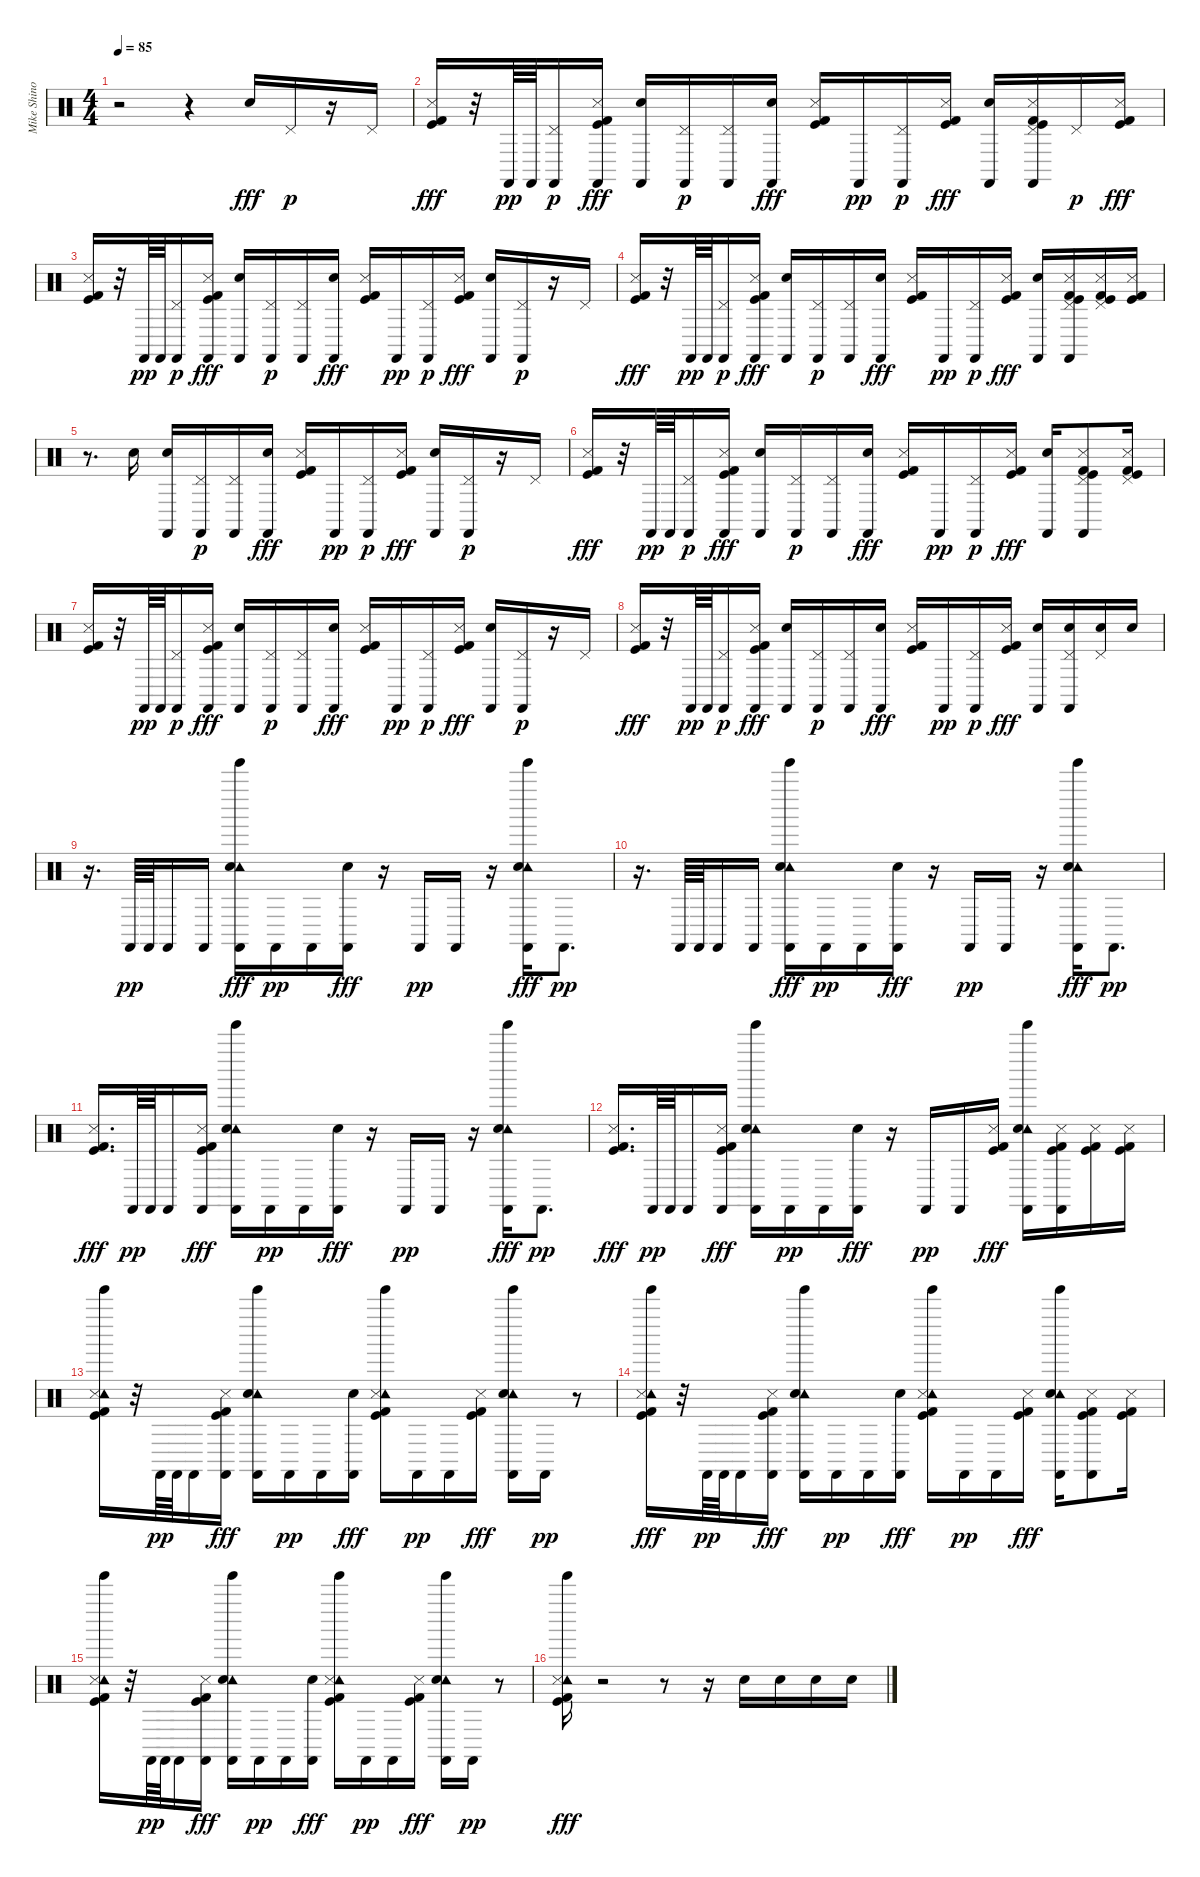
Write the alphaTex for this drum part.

\track ("Mike Shinoda - Percussion" "Mike Shino") {instrument percussion}
\staff {score}
\articulation defaults
\ts (4 4)
\tempo 85
\clef neutral
\ks c
r.2{dy fff} r.4 "Hand Clap (hit)".16 "Pedal Hi-Hat (hit)".16{dy p} r.16 "Pedal Hi-Hat (hit)".16 |
("Snare (side stick) 3" "Kick (hit)" "Kick (hit) 2").16{dy fff} r.32 "Castanets (hit)".64{dy pp} "Castanets (hit)".64 ("Castanets (hit)" "Pedal Hi-Hat (hit)").16{dy p} ("Castanets (hit)" "Snare (side stick) 3" "Kick (hit)" "Kick (hit) 2").16{dy fff} ("Castanets (hit)" "Hand Clap (hit)").16 ("Castanets (hit)" "Pedal Hi-Hat (hit)").16{dy p} ("Castanets (hit)" "Pedal Hi-Hat (hit)").16 ("Castanets (hit)" "Hand Clap (hit)").16{dy fff} ("Snare (side stick) 3" "Kick (hit)" "Kick (hit) 2").16 "Castanets (hit)".16{dy pp} ("Castanets (hit)" "Pedal Hi-Hat (hit)").16{dy p} ("Snare (side stick) 3" "Kick (hit)" "Kick (hit) 2").16{dy fff} ("Castanets (hit)" "Hand Clap (hit)").16 ("Castanets (hit)" "Pedal Hi-Hat (hit)" "Snare (side stick) 3" "Kick (hit)" "Kick (hit) 2").16 "Pedal Hi-Hat (hit)".16{dy p} ("Snare (side stick) 3" "Kick (hit)" "Kick (hit) 2").16{dy fff} |
("Snare (side stick) 3" "Kick (hit)" "Kick (hit) 2").16 r.32 "Castanets (hit)".64{dy pp} "Castanets (hit)".64 ("Castanets (hit)" "Pedal Hi-Hat (hit)").16{dy p} ("Castanets (hit)" "Snare (side stick) 3" "Kick (hit)" "Kick (hit) 2").16{dy fff} ("Castanets (hit)" "Hand Clap (hit)").16 ("Castanets (hit)" "Pedal Hi-Hat (hit)").16{dy p} ("Castanets (hit)" "Pedal Hi-Hat (hit)").16 ("Castanets (hit)" "Hand Clap (hit)").16{dy fff} ("Snare (side stick) 3" "Kick (hit)" "Kick (hit) 2").16 "Castanets (hit)".16{dy pp} ("Castanets (hit)" "Pedal Hi-Hat (hit)").16{dy p} ("Snare (side stick) 3" "Kick (hit)" "Kick (hit) 2").16{dy fff} ("Castanets (hit)" "Hand Clap (hit)").16 ("Castanets (hit)" "Pedal Hi-Hat (hit)").16{dy p} r.16 "Pedal Hi-Hat (hit)".16 |
("Snare (side stick) 3" "Kick (hit)" "Kick (hit) 2").16{dy fff} r.32 "Castanets (hit)".64{dy pp} "Castanets (hit)".64 ("Castanets (hit)" "Pedal Hi-Hat (hit)").16{dy p} ("Castanets (hit)" "Snare (side stick) 3" "Kick (hit)" "Kick (hit) 2").16{dy fff} ("Castanets (hit)" "Hand Clap (hit)").16 ("Castanets (hit)" "Pedal Hi-Hat (hit)").16{dy p} ("Castanets (hit)" "Pedal Hi-Hat (hit)").16 ("Castanets (hit)" "Hand Clap (hit)").16{dy fff} ("Snare (side stick) 3" "Kick (hit)" "Kick (hit) 2").16 "Castanets (hit)".16{dy pp} ("Castanets (hit)" "Pedal Hi-Hat (hit)").16{dy p} ("Snare (side stick) 3" "Kick (hit)" "Kick (hit) 2").16{dy fff} ("Castanets (hit)" "Hand Clap (hit)").16 ("Castanets (hit)" "Pedal Hi-Hat (hit)" "Snare (side stick) 3" "Kick (hit)" "Kick (hit) 2").16 ("Pedal Hi-Hat (hit)" "Snare (side stick) 3" "Kick (hit)" "Kick (hit) 2").16 ("Snare (side stick) 3" "Kick (hit)" "Kick (hit) 2").16 |
r.8{d} "Hand Clap (hit)".16 ("Castanets (hit)" "Hand Clap (hit)").16 ("Castanets (hit)" "Pedal Hi-Hat (hit)").16{dy p} ("Castanets (hit)" "Pedal Hi-Hat (hit)").16 ("Castanets (hit)" "Hand Clap (hit)").16{dy fff} ("Snare (side stick) 3" "Kick (hit)" "Kick (hit) 2").16 "Castanets (hit)".16{dy pp} ("Castanets (hit)" "Pedal Hi-Hat (hit)").16{dy p} ("Snare (side stick) 3" "Kick (hit)" "Kick (hit) 2").16{dy fff} ("Castanets (hit)" "Hand Clap (hit)").16 ("Castanets (hit)" "Pedal Hi-Hat (hit)").16{dy p} r.16 "Pedal Hi-Hat (hit)".16 |
("Snare (side stick) 3" "Kick (hit)" "Kick (hit) 2").16{dy fff} r.32 "Castanets (hit)".64{dy pp} "Castanets (hit)".64 ("Castanets (hit)" "Pedal Hi-Hat (hit)").16{dy p} ("Castanets (hit)" "Snare (side stick) 3" "Kick (hit)" "Kick (hit) 2").16{dy fff} ("Castanets (hit)" "Hand Clap (hit)").16 ("Castanets (hit)" "Pedal Hi-Hat (hit)").16{dy p} ("Castanets (hit)" "Pedal Hi-Hat (hit)").16 ("Castanets (hit)" "Hand Clap (hit)").16{dy fff} ("Snare (side stick) 3" "Kick (hit)" "Kick (hit) 2").16 "Castanets (hit)".16{dy pp} ("Castanets (hit)" "Pedal Hi-Hat (hit)").16{dy p} ("Snare (side stick) 3" "Kick (hit)" "Kick (hit) 2").16{dy fff} ("Castanets (hit)" "Hand Clap (hit)").16 ("Castanets (hit)" "Pedal Hi-Hat (hit)" "Snare (side stick) 3" "Kick (hit)" "Kick (hit) 2").8 ("Pedal Hi-Hat (hit)" "Snare (side stick) 3" "Kick (hit)" "Kick (hit) 2").16 |
("Snare (side stick) 3" "Kick (hit)" "Kick (hit) 2").16 r.32 "Castanets (hit)".64{dy pp} "Castanets (hit)".64 ("Castanets (hit)" "Pedal Hi-Hat (hit)").16{dy p} ("Castanets (hit)" "Snare (side stick) 3" "Kick (hit)" "Kick (hit) 2").16{dy fff} ("Castanets (hit)" "Hand Clap (hit)").16 ("Castanets (hit)" "Pedal Hi-Hat (hit)").16{dy p} ("Castanets (hit)" "Pedal Hi-Hat (hit)").16 ("Castanets (hit)" "Hand Clap (hit)").16{dy fff} ("Snare (side stick) 3" "Kick (hit)" "Kick (hit) 2").16 "Castanets (hit)".16{dy pp} ("Castanets (hit)" "Pedal Hi-Hat (hit)").16{dy p} ("Snare (side stick) 3" "Kick (hit)" "Kick (hit) 2").16{dy fff} ("Castanets (hit)" "Hand Clap (hit)").16 ("Castanets (hit)" "Pedal Hi-Hat (hit)").16{dy p} r.16 "Pedal Hi-Hat (hit)".16 |
("Snare (side stick) 3" "Kick (hit)" "Kick (hit) 2").16{dy fff} r.32 "Castanets (hit)".64{dy pp} "Castanets (hit)".64 ("Castanets (hit)" "Pedal Hi-Hat (hit)").16{dy p} ("Castanets (hit)" "Snare (side stick) 3" "Kick (hit)" "Kick (hit) 2").16{dy fff} ("Castanets (hit)" "Hand Clap (hit)").16 ("Castanets (hit)" "Pedal Hi-Hat (hit)").16{dy p} ("Castanets (hit)" "Pedal Hi-Hat (hit)").16 ("Castanets (hit)" "Hand Clap (hit)").16{dy fff} ("Snare (side stick) 3" "Kick (hit)" "Kick (hit) 2").16 "Castanets (hit)".16{dy pp} ("Castanets (hit)" "Pedal Hi-Hat (hit)").16{dy p} ("Snare (side stick) 3" "Kick (hit)" "Kick (hit) 2").16{dy fff} ("Castanets (hit)" "Hand Clap (hit)").16 ("Castanets (hit)" "Pedal Hi-Hat (hit)" "Hand Clap (hit)").16 ("Pedal Hi-Hat (hit)" "Hand Clap (hit)").16 "Hand Clap (hit)".16 |
r.16{d} "Castanets (hit)".64{dy pp} "Castanets (hit)".64 "Castanets (hit)".16 "Castanets (hit)".16 ("Castanets (hit)" "Tambourine (hit)" "Hand Clap (hit)" "Tinkle Bell (hit)").16{dy fff} "Castanets (hit)".16{dy pp} "Castanets (hit)".16 ("Castanets (hit)" "Hand Clap (hit)").16{dy fff} r.16 "Castanets (hit)".16{dy pp} "Castanets (hit)".16 r.16 ("Castanets (hit)" "Tambourine (hit)" "Hand Clap (hit)" "Tinkle Bell (hit)").16{dy fff} "Castanets (hit)".8{d dy pp} |
r.16{d} "Castanets (hit)".64 "Castanets (hit)".64 "Castanets (hit)".16 "Castanets (hit)".16 ("Castanets (hit)" "Tambourine (hit)" "Hand Clap (hit)" "Tinkle Bell (hit)").16{dy fff} "Castanets (hit)".16{dy pp} "Castanets (hit)".16 ("Castanets (hit)" "Hand Clap (hit)").16{dy fff} r.16 "Castanets (hit)".16{dy pp} "Castanets (hit)".16 r.16 ("Castanets (hit)" "Tambourine (hit)" "Hand Clap (hit)" "Tinkle Bell (hit)").16{dy fff} "Castanets (hit)".8{d dy pp} |
("Snare (side stick) 3" "Kick (hit)" "Kick (hit) 2").16{d dy fff} "Castanets (hit)".64{dy pp} "Castanets (hit)".64 "Castanets (hit)".16 ("Castanets (hit)" "Snare (side stick) 3" "Kick (hit)" "Kick (hit) 2").16{dy fff} ("Castanets (hit)" "Tambourine (hit)" "Hand Clap (hit)" "Tinkle Bell (hit)").16 "Castanets (hit)".16{dy pp} "Castanets (hit)".16 ("Castanets (hit)" "Hand Clap (hit)").16{dy fff} r.16 "Castanets (hit)".16{dy pp} "Castanets (hit)".16 r.16 ("Castanets (hit)" "Tambourine (hit)" "Hand Clap (hit)" "Tinkle Bell (hit)").16{dy fff} "Castanets (hit)".8{d dy pp} |
("Snare (side stick) 3" "Kick (hit)" "Kick (hit) 2").16{d dy fff} "Castanets (hit)".64{dy pp} "Castanets (hit)".64 "Castanets (hit)".16 ("Castanets (hit)" "Snare (side stick) 3" "Kick (hit)" "Kick (hit) 2").16{dy fff} ("Castanets (hit)" "Tambourine (hit)" "Hand Clap (hit)" "Tinkle Bell (hit)").16 "Castanets (hit)".16{dy pp} "Castanets (hit)".16 ("Castanets (hit)" "Hand Clap (hit)").16{dy fff} r.16 "Castanets (hit)".16{dy pp} "Castanets (hit)".16 ("Snare (side stick) 3" "Kick (hit)" "Kick (hit) 2").16{dy fff} ("Castanets (hit)" "Tambourine (hit)" "Hand Clap (hit)" "Tinkle Bell (hit)").16 ("Castanets (hit)" "Snare (side stick) 3" "Kick (hit)" "Kick (hit) 2").16 ("Snare (side stick) 3" "Kick (hit)" "Kick (hit) 2").16 ("Snare (side stick) 3" "Kick (hit)" "Kick (hit) 2").16 |
("Tambourine (hit)" "Tinkle Bell (hit)" "Snare (side stick) 3" "Kick (hit)" "Kick (hit) 2").16 r.32 "Castanets (hit)".64{dy pp} "Castanets (hit)".64 "Castanets (hit)".16 ("Castanets (hit)" "Snare (side stick) 3" "Kick (hit)" "Kick (hit) 2").16{dy fff} ("Castanets (hit)" "Tambourine (hit)" "Hand Clap (hit)" "Tinkle Bell (hit)").16 "Castanets (hit)".16{dy pp} "Castanets (hit)".16 ("Castanets (hit)" "Hand Clap (hit)").16{dy fff} ("Tambourine (hit)" "Tinkle Bell (hit)" "Snare (side stick) 3" "Kick (hit)" "Kick (hit) 2").16 "Castanets (hit)".16{dy pp} "Castanets (hit)".16 ("Snare (side stick) 3" "Kick (hit)" "Kick (hit) 2").16{dy fff} ("Castanets (hit)" "Tambourine (hit)" "Hand Clap (hit)" "Tinkle Bell (hit)").16 "Castanets (hit)".16{dy pp} r.8 |
("Tambourine (hit)" "Tinkle Bell (hit)" "Snare (side stick) 3" "Kick (hit)" "Kick (hit) 2").16{dy fff} r.32 "Castanets (hit)".64{dy pp} "Castanets (hit)".64 "Castanets (hit)".16 ("Castanets (hit)" "Snare (side stick) 3" "Kick (hit)" "Kick (hit) 2").16{dy fff} ("Castanets (hit)" "Tambourine (hit)" "Hand Clap (hit)" "Tinkle Bell (hit)").16 "Castanets (hit)".16{dy pp} "Castanets (hit)".16 ("Castanets (hit)" "Hand Clap (hit)").16{dy fff} ("Tambourine (hit)" "Tinkle Bell (hit)" "Snare (side stick) 3" "Kick (hit)" "Kick (hit) 2").16 "Castanets (hit)".16{dy pp} "Castanets (hit)".16 ("Snare (side stick) 3" "Kick (hit)" "Kick (hit) 2").16{dy fff} ("Castanets (hit)" "Tambourine (hit)" "Hand Clap (hit)" "Tinkle Bell (hit)").16 ("Castanets (hit)" "Snare (side stick) 3" "Kick (hit)" "Kick (hit) 2").8 ("Snare (side stick) 3" "Kick (hit)" "Kick (hit) 2").16 |
("Tambourine (hit)" "Tinkle Bell (hit)" "Snare (side stick) 3" "Kick (hit)" "Kick (hit) 2").16 r.32 "Castanets (hit)".64{dy pp} "Castanets (hit)".64 "Castanets (hit)".16 ("Castanets (hit)" "Snare (side stick) 3" "Kick (hit)" "Kick (hit) 2").16{dy fff} ("Castanets (hit)" "Tambourine (hit)" "Hand Clap (hit)" "Tinkle Bell (hit)").16 "Castanets (hit)".16{dy pp} "Castanets (hit)".16 ("Castanets (hit)" "Hand Clap (hit)").16{dy fff} ("Tambourine (hit)" "Tinkle Bell (hit)" "Snare (side stick) 3" "Kick (hit)" "Kick (hit) 2").16 "Castanets (hit)".16{dy pp} "Castanets (hit)".16 ("Snare (side stick) 3" "Kick (hit)" "Kick (hit) 2").16{dy fff} ("Castanets (hit)" "Tambourine (hit)" "Hand Clap (hit)" "Tinkle Bell (hit)").16 "Castanets (hit)".16{dy pp} r.8 |
("Tambourine (hit)" "Tinkle Bell (hit)" "Snare (side stick) 3" "Kick (hit)" "Kick (hit) 2").16{dy fff} r.2 r.8 r.16 "Hand Clap (hit)".16 "Hand Clap (hit)".16 "Hand Clap (hit)".16 "Hand Clap (hit)".16
